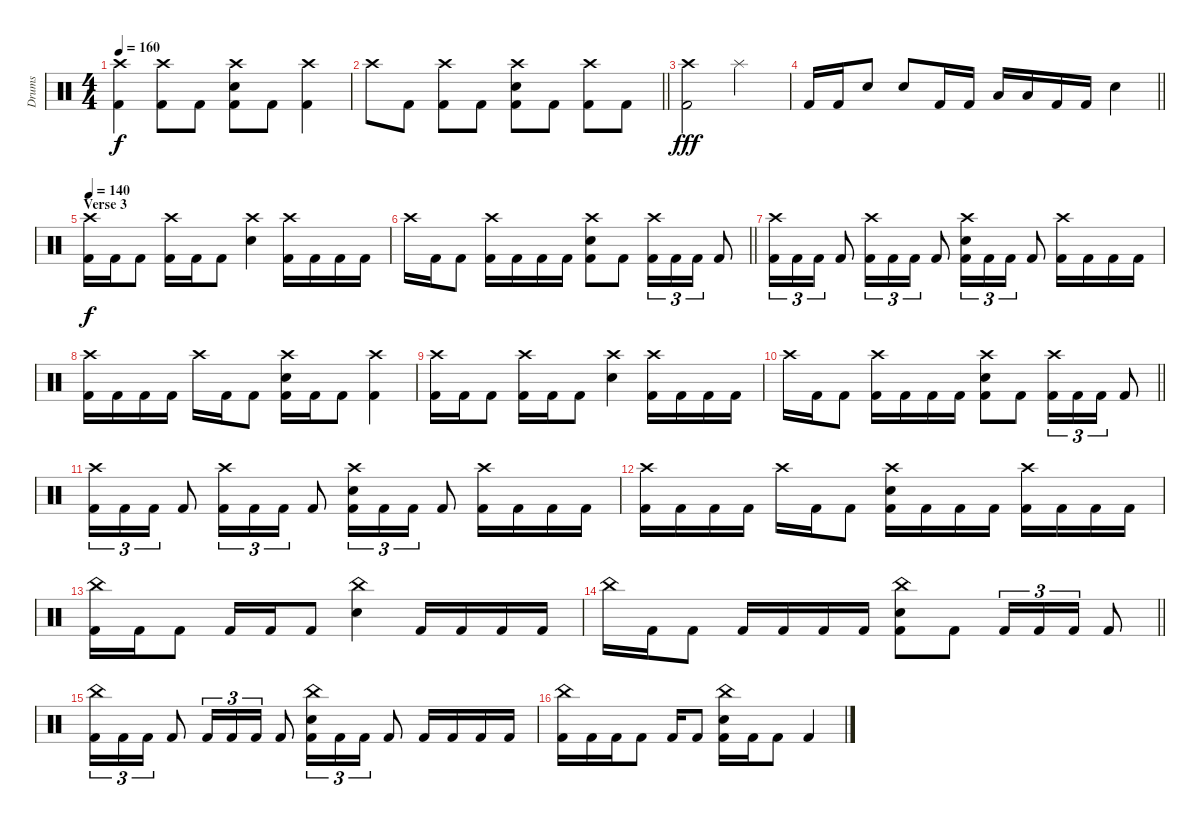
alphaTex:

\track ("Drums" "Drums") {instrument percussion}
\staff {score}
\articulation defaults
\ts (4 4)
\tempo 160
\clef neutral
\ks c
("Crash high (hit)" "Kick (hit) 2").4{dy f} ("Crash high (hit)" "Kick (hit) 2").8 "Kick (hit) 2".8 ("Crash high (hit)" "Electric Snare (hit)" "Kick (hit) 2").8 "Kick (hit) 2".8 ("Crash high (hit)" "Kick (hit) 2").4 |
\barLineRight lightlight "Crash high (hit)".8 "Kick (hit) 2".8
("Crash high (hit)" "Kick (hit) 2").8 "Kick (hit) 2".8 ("Crash high (hit)" "Electric Snare (hit)" "Kick (hit) 2").8 "Kick (hit) 2".8 ("Crash high (hit)" "Kick (hit) 2").8 "Kick (hit) 2".8 |
("Crash high (hit)" "Kick (hit) 2").2{dy fff} "Splash (hit)".2 |
\barLineRight lightlight "Kick (hit) 2".16 "Kick (hit) 2".16 "Electric Snare (hit)".8 "Electric Snare (hit)".8 "Kick (hit) 2".16 "Kick (hit) 2".16 "Low Tom (hit)".16 "Low Tom (hit)".16 "Kick (hit) 2".16 "Kick (hit) 2".16 "Electric Snare (hit)".4
|
\section ("" "Verse 3")
\tempo 140
("Crash high (hit)" "Kick (hit) 2").16{dy f} "Kick (hit) 2".16 "Kick (hit) 2".8 ("Crash high (hit)" "Kick (hit) 2").16 "Kick (hit) 2".16 "Kick (hit) 2".8 ("Crash high (hit)" "Electric Snare (hit)").4 ("Crash high (hit)" "Kick (hit) 2").16 "Kick (hit) 2".16 "Kick (hit) 2".16 "Kick (hit) 2".16 |
\barLineRight lightlight "Crash high (hit)".16 "Kick (hit) 2".16 "Kick (hit) 2".8
("Crash high (hit)" "Kick (hit) 2").16 "Kick (hit) 2".16 "Kick (hit) 2".16 "Kick (hit) 2".16 ("Crash high (hit)" "Electric Snare (hit)" "Kick (hit) 2").8 "Kick (hit) 2".8 ("Crash high (hit)" "Kick (hit) 2").16{tu (3 2)} "Kick (hit) 2".16{tu (3 2)} "Kick (hit) 2".16{tu (3 2)} "Kick (hit) 2".8 |
("Crash high (hit)" "Kick (hit) 2").16{tu (3 2)} "Kick (hit) 2".16{tu (3 2)} "Kick (hit) 2".16{tu (3 2)} "Kick (hit) 2".8 ("Crash high (hit)" "Kick (hit) 2").16{tu (3 2)} "Kick (hit) 2".16{tu (3 2)} "Kick (hit) 2".16{tu (3 2)} "Kick (hit) 2".8 ("Crash high (hit)" "Electric Snare (hit)" "Kick (hit) 2").16{tu (3 2)} "Kick (hit) 2".16{tu (3 2)} "Kick (hit) 2".16{tu (3 2)} "Kick (hit) 2".8 ("Crash high (hit)" "Kick (hit) 2").16 "Kick (hit) 2".16 "Kick (hit) 2".16 "Kick (hit) 2".16 |
("Crash high (hit)" "Kick (hit) 2").16 "Kick (hit) 2".16 "Kick (hit) 2".16 "Kick (hit) 2".16 "Crash high (hit)".16 "Kick (hit) 2".16 "Kick (hit) 2".8 ("Crash high (hit)" "Electric Snare (hit)" "Kick (hit) 2").16 "Kick (hit) 2".16 "Kick (hit) 2".8 ("Crash high (hit)" "Kick (hit) 2").4 |
("Crash high (hit)" "Kick (hit) 2").16 "Kick (hit) 2".16 "Kick (hit) 2".8 ("Crash high (hit)" "Kick (hit) 2").16 "Kick (hit) 2".16 "Kick (hit) 2".8 ("Crash high (hit)" "Electric Snare (hit)").4 ("Crash high (hit)" "Kick (hit) 2").16 "Kick (hit) 2".16 "Kick (hit) 2".16 "Kick (hit) 2".16 |
\barLineRight lightlight "Crash high (hit)".16 "Kick (hit) 2".16 "Kick (hit) 2".8
("Crash high (hit)" "Kick (hit) 2").16 "Kick (hit) 2".16 "Kick (hit) 2".16 "Kick (hit) 2".16 ("Crash high (hit)" "Electric Snare (hit)" "Kick (hit) 2").8 "Kick (hit) 2".8 ("Crash high (hit)" "Kick (hit) 2").16{tu (3 2)} "Kick (hit) 2".16{tu (3 2)} "Kick (hit) 2".16{tu (3 2)} "Kick (hit) 2".8 |
("Crash high (hit)" "Kick (hit) 2").16{tu (3 2)} "Kick (hit) 2".16{tu (3 2)} "Kick (hit) 2".16{tu (3 2)} "Kick (hit) 2".8 ("Crash high (hit)" "Kick (hit) 2").16{tu (3 2)} "Kick (hit) 2".16{tu (3 2)} "Kick (hit) 2".16{tu (3 2)} "Kick (hit) 2".8 ("Crash high (hit)" "Electric Snare (hit)" "Kick (hit) 2").16{tu (3 2)} "Kick (hit) 2".16{tu (3 2)} "Kick (hit) 2".16{tu (3 2)} "Kick (hit) 2".8 ("Crash high (hit)" "Kick (hit) 2").16 "Kick (hit) 2".16 "Kick (hit) 2".16 "Kick (hit) 2".16 |
("Crash high (hit)" "Kick (hit) 2").16 "Kick (hit) 2".16 "Kick (hit) 2".16 "Kick (hit) 2".16 "Crash high (hit)".16 "Kick (hit) 2".16 "Kick (hit) 2".8 ("Crash high (hit)" "Electric Snare (hit)" "Kick (hit) 2").16 "Kick (hit) 2".16 "Kick (hit) 2".16 "Kick (hit) 2".16 ("Crash high (hit)" "Kick (hit) 2").16 "Kick (hit) 2".16 "Kick (hit) 2".16 "Kick (hit) 2".16 |
("China (hit)" "Kick (hit) 2").16 "Kick (hit) 2".16 "Kick (hit) 2".8 "Kick (hit) 2".16 "Kick (hit) 2".16 "Kick (hit) 2".8 ("China (hit)" "Electric Snare (hit)").4 "Kick (hit) 2".16 "Kick (hit) 2".16 "Kick (hit) 2".16 "Kick (hit) 2".16 |
\barLineRight lightlight "China (hit)".16 "Kick (hit) 2".16 "Kick (hit) 2".8 "Kick (hit) 2".16 "Kick (hit) 2".16 "Kick (hit) 2".16 "Kick (hit) 2".16
("China (hit)" "Electric Snare (hit)" "Kick (hit) 2").8 "Kick (hit) 2".8 "Kick (hit) 2".16{tu (3 2)} "Kick (hit) 2".16{tu (3 2)} "Kick (hit) 2".16{tu (3 2)} "Kick (hit) 2".8 |
("China (hit)" "Kick (hit) 2").16{tu (3 2)} "Kick (hit) 2".16{tu (3 2)} "Kick (hit) 2".16{tu (3 2)} "Kick (hit) 2".8 "Kick (hit) 2".16{tu (3 2)} "Kick (hit) 2".16{tu (3 2)} "Kick (hit) 2".16{tu (3 2)} "Kick (hit) 2".8 ("China (hit)" "Electric Snare (hit)" "Kick (hit) 2").16{tu (3 2)} "Kick (hit) 2".16{tu (3 2)} "Kick (hit) 2".16{tu (3 2)} "Kick (hit) 2".8 "Kick (hit) 2".16 "Kick (hit) 2".16 "Kick (hit) 2".16 "Kick (hit) 2".16 |
("China (hit)" "Kick (hit) 2").16 "Kick (hit) 2".16 "Kick (hit) 2".16 "Kick (hit) 2".8 "Kick (hit) 2".16 "Kick (hit) 2".8 ("China (hit)" "Electric Snare (hit)" "Kick (hit) 2").16 "Kick (hit) 2".16 "Kick (hit) 2".8 "Kick (hit) 2".4
